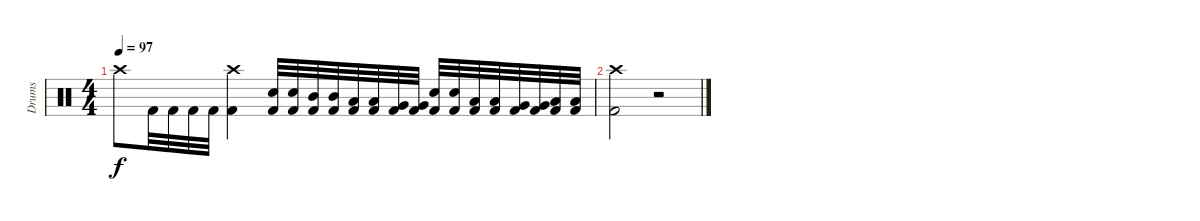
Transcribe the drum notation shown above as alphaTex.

\track ("Drums" "Drums") {instrument percussion}
\staff
\articulation defaults
\ts (4 4)
\tempo 97
\clef neutral
\ks c "Crash high (hit)".8{dy f} "Kick (hit) 2".32 "Kick (hit) 2".32 "Kick (hit) 2".32 "Kick (hit) 2".32
("Crash high (hit)" "Kick (hit) 2").4 ("Electric Snare (hit)" "Kick (hit) 2").32 ("Electric Snare (hit)" "Kick (hit) 2").32 ("Mid Tom (hit)" "Kick (hit) 2").32 ("Mid Tom (hit)" "Kick (hit) 2").32 ("Low Tom (hit)" "Kick (hit) 2").32 ("Low Tom (hit)" "Kick (hit) 2").32 ("Very Low Tom (hit)" "Kick (hit) 2").32 ("Very Low Tom (hit)" "Kick (hit) 2").32 ("Electric Snare (hit)" "Kick (hit) 2").32 ("Electric Snare (hit)" "Kick (hit) 2").32 ("Low Tom (hit)" "Kick (hit) 2").32 ("Low Tom (hit)" "Kick (hit) 2").32 ("Very Low Tom (hit)" "Kick (hit) 2").32 ("Very Low Tom (hit)" "Kick (hit) 2").32 ("Low Floor Tom (hit)" "Kick (hit) 2").32 ("Low Floor Tom (hit)" "Kick (hit) 2").32 |
("Crash high (hit)" "Kick (hit) 2").2 r.2
